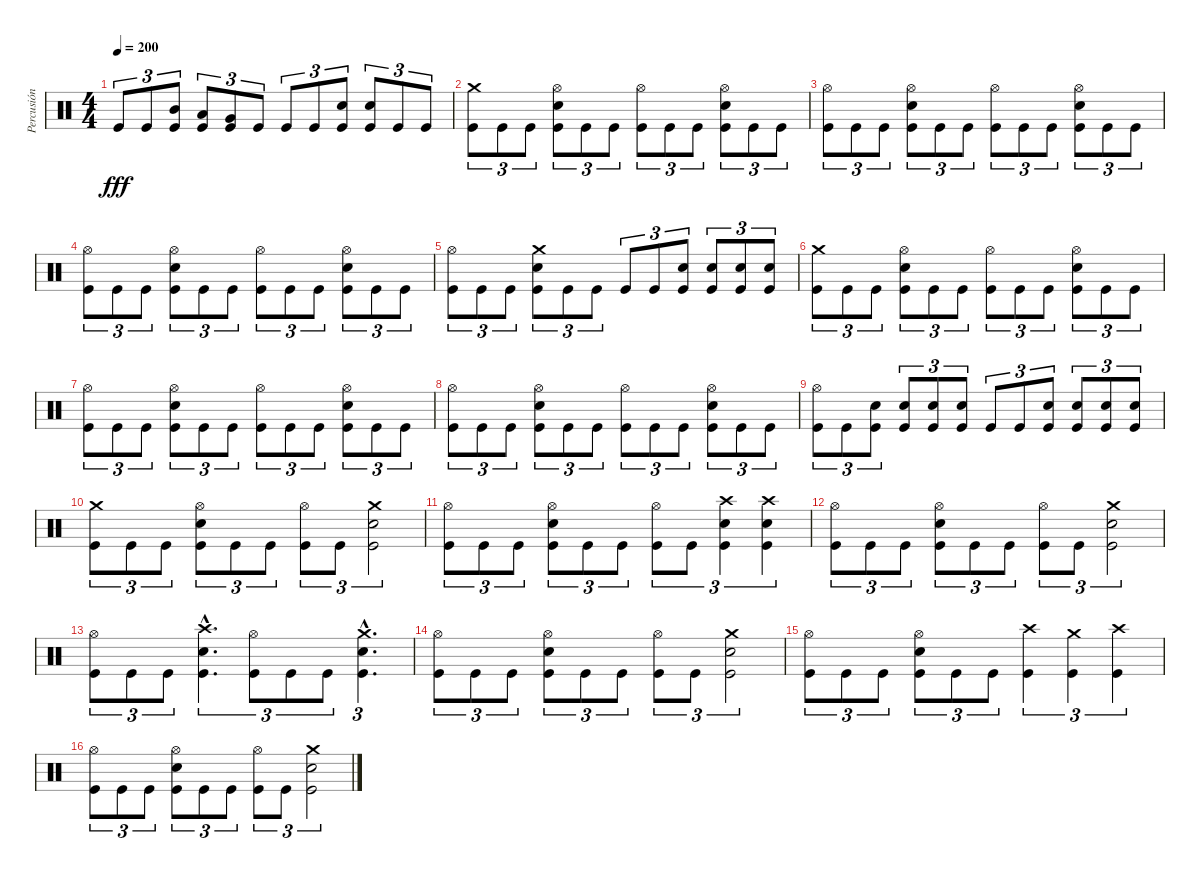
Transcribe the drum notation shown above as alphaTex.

\track ("Percusión" "Percusión") {instrument percussion}
\staff {score}
\articulation defaults
\ts (4 4)
\tempo 200
\clef neutral
\ks c "Kick (hit)".8{tu (3 2) dy fff} "Kick (hit)".8{tu (3 2)}
("Mid Tom (hit)" "Kick (hit)").8{tu (3 2)} ("Low Tom (hit)" "Kick (hit)").8{tu (3 2)} ("Very Low Tom (hit)" "Kick (hit)").8{tu (3 2)} "Kick (hit)".8{tu (3 2)} "Kick (hit)".8{tu (3 2)} "Kick (hit)".8{tu (3 2)} ("Electric Snare (hit)" "Kick (hit)").8{tu (3 2)} ("Electric Snare (hit)" "Kick (hit)").8{tu (3 2)} "Kick (hit)".8{tu (3 2)} "Kick (hit)".8{tu (3 2)} |
("Crash medium (hit)" "Kick (hit)").8{tu (3 2)} "Kick (hit)".8{tu (3 2)} "Kick (hit)".8{tu (3 2)} ("Hi-Hat (open)" "Electric Snare (hit)" "Kick (hit)").8{tu (3 2)} "Kick (hit)".8{tu (3 2)} "Kick (hit)".8{tu (3 2)} ("Hi-Hat (open)" "Kick (hit)").8{tu (3 2)} "Kick (hit)".8{tu (3 2)} "Kick (hit)".8{tu (3 2)} ("Hi-Hat (open)" "Electric Snare (hit)" "Kick (hit)").8{tu (3 2)} "Kick (hit)".8{tu (3 2)} "Kick (hit)".8{tu (3 2)} |
("Hi-Hat (open)" "Kick (hit)").8{tu (3 2)} "Kick (hit)".8{tu (3 2)} "Kick (hit)".8{tu (3 2)} ("Hi-Hat (open)" "Electric Snare (hit)" "Kick (hit)").8{tu (3 2)} "Kick (hit)".8{tu (3 2)} "Kick (hit)".8{tu (3 2)} ("Hi-Hat (open)" "Kick (hit)").8{tu (3 2)} "Kick (hit)".8{tu (3 2)} "Kick (hit)".8{tu (3 2)} ("Hi-Hat (open)" "Electric Snare (hit)" "Kick (hit)").8{tu (3 2)} "Kick (hit)".8{tu (3 2)} "Kick (hit)".8{tu (3 2)} |
("Hi-Hat (open)" "Kick (hit)").8{tu (3 2)} "Kick (hit)".8{tu (3 2)} "Kick (hit)".8{tu (3 2)} ("Hi-Hat (open)" "Electric Snare (hit)" "Kick (hit)").8{tu (3 2)} "Kick (hit)".8{tu (3 2)} "Kick (hit)".8{tu (3 2)} ("Hi-Hat (open)" "Kick (hit)").8{tu (3 2)} "Kick (hit)".8{tu (3 2)} "Kick (hit)".8{tu (3 2)} ("Hi-Hat (open)" "Electric Snare (hit)" "Kick (hit)").8{tu (3 2)} "Kick (hit)".8{tu (3 2)} "Kick (hit)".8{tu (3 2)} |
("Hi-Hat (open)" "Kick (hit)").8{tu (3 2)} "Kick (hit)".8{tu (3 2)} "Kick (hit)".8{tu (3 2)} ("Crash medium (hit)" "Electric Snare (hit)" "Kick (hit)").8{tu (3 2)} "Kick (hit)".8{tu (3 2)} "Kick (hit)".8{tu (3 2)} "Kick (hit)".8{tu (3 2)} "Kick (hit)".8{tu (3 2)} ("Electric Snare (hit)" "Kick (hit)").8{tu (3 2)} ("Electric Snare (hit)" "Kick (hit)").8{tu (3 2)} ("Electric Snare (hit)" "Kick (hit)").8{tu (3 2)} ("Electric Snare (hit)" "Kick (hit)").8{tu (3 2)} |
("Crash medium (hit)" "Kick (hit)").8{tu (3 2)} "Kick (hit)".8{tu (3 2)} "Kick (hit)".8{tu (3 2)} ("Hi-Hat (open)" "Electric Snare (hit)" "Kick (hit)").8{tu (3 2)} "Kick (hit)".8{tu (3 2)} "Kick (hit)".8{tu (3 2)} ("Hi-Hat (open)" "Kick (hit)").8{tu (3 2)} "Kick (hit)".8{tu (3 2)} "Kick (hit)".8{tu (3 2)} ("Hi-Hat (open)" "Electric Snare (hit)" "Kick (hit)").8{tu (3 2)} "Kick (hit)".8{tu (3 2)} "Kick (hit)".8{tu (3 2)} |
("Hi-Hat (open)" "Kick (hit)").8{tu (3 2)} "Kick (hit)".8{tu (3 2)} "Kick (hit)".8{tu (3 2)} ("Hi-Hat (open)" "Electric Snare (hit)" "Kick (hit)").8{tu (3 2)} "Kick (hit)".8{tu (3 2)} "Kick (hit)".8{tu (3 2)} ("Hi-Hat (open)" "Kick (hit)").8{tu (3 2)} "Kick (hit)".8{tu (3 2)} "Kick (hit)".8{tu (3 2)} ("Hi-Hat (open)" "Electric Snare (hit)" "Kick (hit)").8{tu (3 2)} "Kick (hit)".8{tu (3 2)} "Kick (hit)".8{tu (3 2)} |
("Hi-Hat (open)" "Kick (hit)").8{tu (3 2)} "Kick (hit)".8{tu (3 2)} "Kick (hit)".8{tu (3 2)} ("Hi-Hat (open)" "Electric Snare (hit)" "Kick (hit)").8{tu (3 2)} "Kick (hit)".8{tu (3 2)} "Kick (hit)".8{tu (3 2)} ("Hi-Hat (open)" "Kick (hit)").8{tu (3 2)} "Kick (hit)".8{tu (3 2)} "Kick (hit)".8{tu (3 2)} ("Hi-Hat (open)" "Electric Snare (hit)" "Kick (hit)").8{tu (3 2)} "Kick (hit)".8{tu (3 2)} "Kick (hit)".8{tu (3 2)} |
("Hi-Hat (open)" "Kick (hit)").8{tu (3 2)} "Kick (hit)".8{tu (3 2)} ("Electric Snare (hit)" "Kick (hit)").8{tu (3 2)} ("Electric Snare (hit)" "Kick (hit)").8{tu (3 2)} ("Electric Snare (hit)" "Kick (hit)").8{tu (3 2)} ("Electric Snare (hit)" "Kick (hit)").8{tu (3 2)} "Kick (hit)".8{tu (3 2)} "Kick (hit)".8{tu (3 2)} ("Electric Snare (hit)" "Kick (hit)").8{tu (3 2)} ("Electric Snare (hit)" "Kick (hit)").8{tu (3 2)} ("Electric Snare (hit)" "Kick (hit)").8{tu (3 2)} ("Electric Snare (hit)" "Kick (hit)").8{tu (3 2)} |
("Crash medium (hit)" "Kick (hit)").8{tu (3 2)} "Kick (hit)".8{tu (3 2)} "Kick (hit)".8{tu (3 2)} ("Hi-Hat (open)" "Electric Snare (hit)" "Kick (hit)").8{tu (3 2)} "Kick (hit)".8{tu (3 2)} "Kick (hit)".8{tu (3 2)} ("Hi-Hat (open)" "Kick (hit)").8{tu (3 2)} "Kick (hit)".8{tu (3 2)} ("Crash medium (hit)" "Electric Snare (hit)" "Kick (hit)").2{tu (3 2)} |
("Hi-Hat (open)" "Kick (hit)").8{tu (3 2)} "Kick (hit)".8{tu (3 2)} "Kick (hit)".8{tu (3 2)} ("Hi-Hat (open)" "Electric Snare (hit)" "Kick (hit)").8{tu (3 2)} "Kick (hit)".8{tu (3 2)} "Kick (hit)".8{tu (3 2)} ("Hi-Hat (open)" "Kick (hit)").8{tu (3 2)} "Kick (hit)".8{tu (3 2)} ("Crash high (hit)" "Electric Snare (hit)" "Kick (hit)").4{tu (3 2)} ("Crash high (hit)" "Electric Snare (hit)" "Kick (hit)").4{tu (3 2)} |
("Hi-Hat (open)" "Kick (hit)").8{tu (3 2)} "Kick (hit)".8{tu (3 2)} "Kick (hit)".8{tu (3 2)} ("Hi-Hat (open)" "Electric Snare (hit)" "Kick (hit)").8{tu (3 2)} "Kick (hit)".8{tu (3 2)} "Kick (hit)".8{tu (3 2)} ("Hi-Hat (open)" "Kick (hit)").8{tu (3 2)} "Kick (hit)".8{tu (3 2)} ("Crash medium (hit)" "Electric Snare (hit)" "Kick (hit)").2{tu (3 2)} |
("Hi-Hat (open)" "Kick (hit)").8{tu (3 2)} "Kick (hit)".8{tu (3 2)} "Kick (hit)".8{tu (3 2)} ("Crash high (hit)"{hac} "Electric Snare (hit)"{hac} "Kick (hit)"{hac}).4{d tu (3 2)} ("Hi-Hat (open)" "Kick (hit)").8{tu (3 2)} "Kick (hit)".8{tu (3 2)} "Kick (hit)".8{tu (3 2)} ("Crash medium (hit)"{hac} "Electric Snare (hit)"{hac} "Kick (hit)"{hac}).4{d tu (3 2)} |
("Hi-Hat (open)" "Kick (hit)").8{tu (3 2)} "Kick (hit)".8{tu (3 2)} "Kick (hit)".8{tu (3 2)} ("Hi-Hat (open)" "Electric Snare (hit)" "Kick (hit)").8{tu (3 2)} "Kick (hit)".8{tu (3 2)} "Kick (hit)".8{tu (3 2)} ("Hi-Hat (open)" "Kick (hit)").8{tu (3 2)} "Kick (hit)".8{tu (3 2)} ("Crash medium (hit)" "Electric Snare (hit)" "Kick (hit)").2{tu (3 2)} |
("Hi-Hat (open)" "Kick (hit)").8{tu (3 2)} "Kick (hit)".8{tu (3 2)} "Kick (hit)".8{tu (3 2)} ("Hi-Hat (open)" "Electric Snare (hit)" "Kick (hit)").8{tu (3 2)} "Kick (hit)".8{tu (3 2)} "Kick (hit)".8{tu (3 2)} ("Crash high (hit)" "Kick (hit)").4{tu (3 2)} ("Crash medium (hit)" "Kick (hit)").4{tu (3 2)} ("Crash high (hit)" "Kick (hit)").4{tu (3 2)} |
("Hi-Hat (open)" "Kick (hit)").8{tu (3 2)} "Kick (hit)".8{tu (3 2)} "Kick (hit)".8{tu (3 2)} ("Hi-Hat (open)" "Electric Snare (hit)" "Kick (hit)").8{tu (3 2)} "Kick (hit)".8{tu (3 2)} "Kick (hit)".8{tu (3 2)} ("Hi-Hat (open)" "Kick (hit)").8{tu (3 2)} "Kick (hit)".8{tu (3 2)} ("Crash medium (hit)" "Electric Snare (hit)" "Kick (hit)").2{tu (3 2)}
